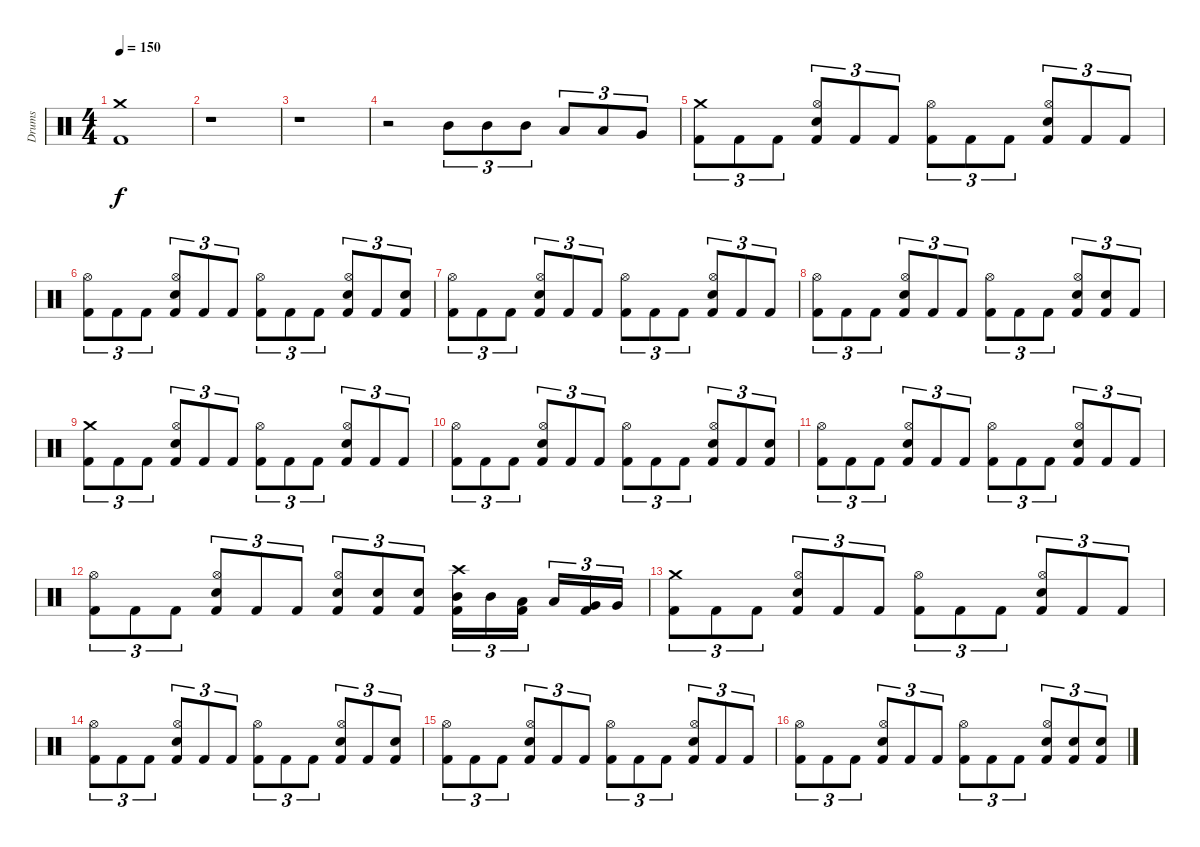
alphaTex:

\track ("Drums" "Drums") {instrument percussion}
\staff {score}
\articulation defaults
\ts (4 4)
\tempo 150
\clef neutral
\ks c
("Crash medium (hit)" "Kick (hit) 2").1{dy f} |
r.1 |
r.1 |
r.2 "Mid Tom (hit)".8{tu (3 2)} "Mid Tom (hit)".8{tu (3 2)} "Mid Tom (hit)".8{tu (3 2)} "Low Tom (hit)".8{tu (3 2)} "Low Tom (hit)".8{tu (3 2)} "Very Low Tom (hit)".8{tu (3 2)} |
("Crash medium (hit)" "Kick (hit) 2").8{tu (3 2)} "Kick (hit) 2".8{tu (3 2)} "Kick (hit) 2".8{tu (3 2)} ("Kick (hit) 2" "Hi-Hat (open)" "Snare (hit) 2").8{tu (3 2)} "Kick (hit) 2".8{tu (3 2)} "Kick (hit) 2".8{tu (3 2)} ("Hi-Hat (open)" "Kick (hit) 2").8{tu (3 2)} "Kick (hit) 2".8{tu (3 2)} "Kick (hit) 2".8{tu (3 2)} ("Kick (hit) 2" "Hi-Hat (open)" "Snare (hit) 2").8{tu (3 2)} "Kick (hit) 2".8{tu (3 2)} "Kick (hit) 2".8{tu (3 2)} |
("Hi-Hat (open)" "Kick (hit) 2").8{tu (3 2)} "Kick (hit) 2".8{tu (3 2)} "Kick (hit) 2".8{tu (3 2)} ("Kick (hit) 2" "Hi-Hat (open)" "Snare (hit) 2").8{tu (3 2)} "Kick (hit) 2".8{tu (3 2)} "Kick (hit) 2".8{tu (3 2)} ("Hi-Hat (open)" "Kick (hit) 2").8{tu (3 2)} "Kick (hit) 2".8{tu (3 2)} "Kick (hit) 2".8{tu (3 2)} ("Kick (hit) 2" "Hi-Hat (open)" "Snare (hit) 2").8{tu (3 2)} "Kick (hit) 2".8{tu (3 2)} ("Kick (hit) 2" "Snare (hit) 2").8{tu (3 2)} |
("Hi-Hat (open)" "Kick (hit) 2").8{tu (3 2)} "Kick (hit) 2".8{tu (3 2)} "Kick (hit) 2".8{tu (3 2)} ("Kick (hit) 2" "Hi-Hat (open)" "Snare (hit) 2").8{tu (3 2)} "Kick (hit) 2".8{tu (3 2)} "Kick (hit) 2".8{tu (3 2)} ("Hi-Hat (open)" "Kick (hit) 2").8{tu (3 2)} "Kick (hit) 2".8{tu (3 2)} "Kick (hit) 2".8{tu (3 2)} ("Kick (hit) 2" "Hi-Hat (open)" "Snare (hit) 2").8{tu (3 2)} "Kick (hit) 2".8{tu (3 2)} "Kick (hit) 2".8{tu (3 2)} |
("Hi-Hat (open)" "Kick (hit) 2").8{tu (3 2)} "Kick (hit) 2".8{tu (3 2)} "Kick (hit) 2".8{tu (3 2)} ("Kick (hit) 2" "Hi-Hat (open)" "Snare (hit) 2").8{tu (3 2)} "Kick (hit) 2".8{tu (3 2)} "Kick (hit) 2".8{tu (3 2)} ("Hi-Hat (open)" "Kick (hit) 2").8{tu (3 2)} "Kick (hit) 2".8{tu (3 2)} "Kick (hit) 2".8{tu (3 2)} ("Kick (hit) 2" "Hi-Hat (open)" "Snare (hit) 2").8{tu (3 2)} ("Kick (hit) 2" "Snare (hit) 2").8{tu (3 2)} "Kick (hit) 2".8{tu (3 2)} |
("Crash medium (hit)" "Kick (hit) 2").8{tu (3 2)} "Kick (hit) 2".8{tu (3 2)} "Kick (hit) 2".8{tu (3 2)} ("Kick (hit) 2" "Hi-Hat (open)" "Snare (hit) 2").8{tu (3 2)} "Kick (hit) 2".8{tu (3 2)} "Kick (hit) 2".8{tu (3 2)} ("Hi-Hat (open)" "Kick (hit) 2").8{tu (3 2)} "Kick (hit) 2".8{tu (3 2)} "Kick (hit) 2".8{tu (3 2)} ("Kick (hit) 2" "Hi-Hat (open)" "Snare (hit) 2").8{tu (3 2)} "Kick (hit) 2".8{tu (3 2)} "Kick (hit) 2".8{tu (3 2)} |
("Hi-Hat (open)" "Kick (hit) 2").8{tu (3 2)} "Kick (hit) 2".8{tu (3 2)} "Kick (hit) 2".8{tu (3 2)} ("Kick (hit) 2" "Hi-Hat (open)" "Snare (hit) 2").8{tu (3 2)} "Kick (hit) 2".8{tu (3 2)} "Kick (hit) 2".8{tu (3 2)} ("Hi-Hat (open)" "Kick (hit) 2").8{tu (3 2)} "Kick (hit) 2".8{tu (3 2)} "Kick (hit) 2".8{tu (3 2)} ("Kick (hit) 2" "Hi-Hat (open)" "Snare (hit) 2").8{tu (3 2)} "Kick (hit) 2".8{tu (3 2)} ("Kick (hit) 2" "Snare (hit) 2").8{tu (3 2)} |
("Hi-Hat (open)" "Kick (hit) 2").8{tu (3 2)} "Kick (hit) 2".8{tu (3 2)} "Kick (hit) 2".8{tu (3 2)} ("Kick (hit) 2" "Hi-Hat (open)" "Snare (hit) 2").8{tu (3 2)} "Kick (hit) 2".8{tu (3 2)} "Kick (hit) 2".8{tu (3 2)} ("Hi-Hat (open)" "Kick (hit) 2").8{tu (3 2)} "Kick (hit) 2".8{tu (3 2)} "Kick (hit) 2".8{tu (3 2)} ("Kick (hit) 2" "Hi-Hat (open)" "Snare (hit) 2").8{tu (3 2)} "Kick (hit) 2".8{tu (3 2)} "Kick (hit) 2".8{tu (3 2)} |
("Hi-Hat (open)" "Kick (hit) 2").8{tu (3 2)} "Kick (hit) 2".8{tu (3 2)} "Kick (hit) 2".8{tu (3 2)} ("Kick (hit) 2" "Hi-Hat (open)" "Snare (hit) 2").8{tu (3 2)} "Kick (hit) 2".8{tu (3 2)} "Kick (hit) 2".8{tu (3 2)} ("Kick (hit) 2" "Hi-Hat (open)" "Snare (hit) 2").8{tu (3 2)} ("Kick (hit) 2" "Snare (hit) 2").8{tu (3 2)} ("Kick (hit) 2" "Snare (hit) 2").8{tu (3 2)} ("Kick (hit) 2" "Crash high (hit)" "Mid Tom (hit)").16{tu (3 2)} "Mid Tom (hit)".16{tu (3 2)} ("Kick (hit) 2" "Low Tom (hit)").16{tu (3 2)} "Low Tom (hit)".16{tu (3 2)} ("Kick (hit) 2" "Very Low Tom (hit)").16{tu (3 2)} "Very Low Tom (hit)".16{tu (3 2)} |
("Crash medium (hit)" "Kick (hit) 2").8{tu (3 2)} "Kick (hit) 2".8{tu (3 2)} "Kick (hit) 2".8{tu (3 2)} ("Kick (hit) 2" "Hi-Hat (open)" "Snare (hit) 2").8{tu (3 2)} "Kick (hit) 2".8{tu (3 2)} "Kick (hit) 2".8{tu (3 2)} ("Hi-Hat (open)" "Kick (hit) 2").8{tu (3 2)} "Kick (hit) 2".8{tu (3 2)} "Kick (hit) 2".8{tu (3 2)} ("Kick (hit) 2" "Hi-Hat (open)" "Snare (hit) 2").8{tu (3 2)} "Kick (hit) 2".8{tu (3 2)} "Kick (hit) 2".8{tu (3 2)} |
("Hi-Hat (open)" "Kick (hit) 2").8{tu (3 2)} "Kick (hit) 2".8{tu (3 2)} "Kick (hit) 2".8{tu (3 2)} ("Kick (hit) 2" "Hi-Hat (open)" "Snare (hit) 2").8{tu (3 2)} "Kick (hit) 2".8{tu (3 2)} "Kick (hit) 2".8{tu (3 2)} ("Hi-Hat (open)" "Kick (hit) 2").8{tu (3 2)} "Kick (hit) 2".8{tu (3 2)} "Kick (hit) 2".8{tu (3 2)} ("Kick (hit) 2" "Hi-Hat (open)" "Snare (hit) 2").8{tu (3 2)} "Kick (hit) 2".8{tu (3 2)} ("Kick (hit) 2" "Snare (hit) 2").8{tu (3 2)} |
("Hi-Hat (open)" "Kick (hit) 2").8{tu (3 2)} "Kick (hit) 2".8{tu (3 2)} "Kick (hit) 2".8{tu (3 2)} ("Kick (hit) 2" "Hi-Hat (open)" "Snare (hit) 2").8{tu (3 2)} "Kick (hit) 2".8{tu (3 2)} "Kick (hit) 2".8{tu (3 2)} ("Hi-Hat (open)" "Kick (hit) 2").8{tu (3 2)} "Kick (hit) 2".8{tu (3 2)} "Kick (hit) 2".8{tu (3 2)} ("Kick (hit) 2" "Hi-Hat (open)" "Snare (hit) 2").8{tu (3 2)} "Kick (hit) 2".8{tu (3 2)} "Kick (hit) 2".8{tu (3 2)} |
("Hi-Hat (open)" "Kick (hit) 2").8{tu (3 2)} "Kick (hit) 2".8{tu (3 2)} "Kick (hit) 2".8{tu (3 2)} ("Kick (hit) 2" "Hi-Hat (open)" "Snare (hit) 2").8{tu (3 2)} "Kick (hit) 2".8{tu (3 2)} "Kick (hit) 2".8{tu (3 2)} ("Hi-Hat (open)" "Kick (hit) 2").8{tu (3 2)} "Kick (hit) 2".8{tu (3 2)} "Kick (hit) 2".8{tu (3 2)} ("Kick (hit) 2" "Hi-Hat (open)" "Snare (hit) 2").8{tu (3 2)} ("Kick (hit) 2" "Snare (hit) 2").8{tu (3 2)} ("Kick (hit) 2" "Snare (hit) 2").8{tu (3 2)}
